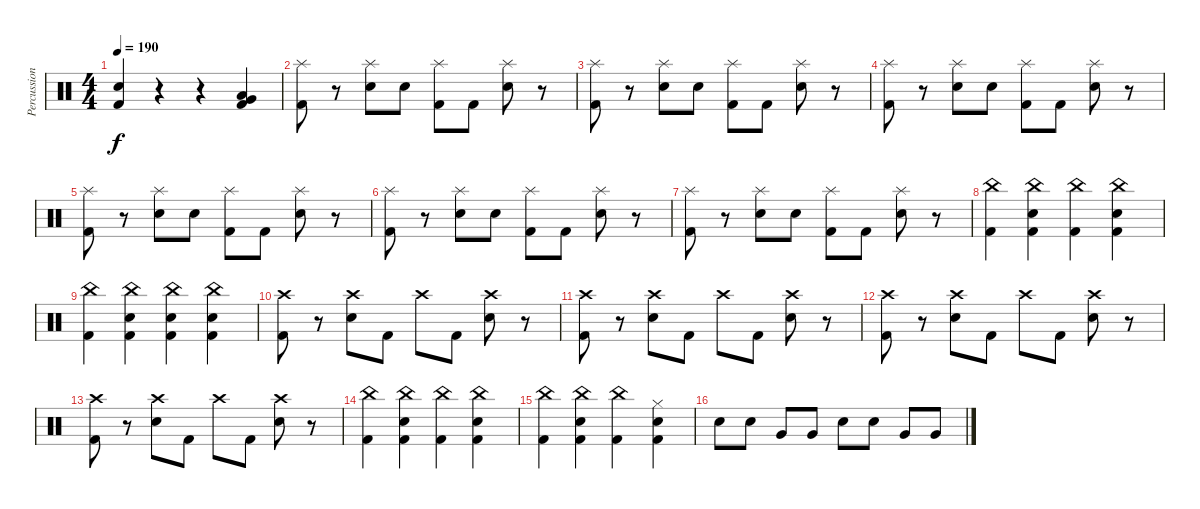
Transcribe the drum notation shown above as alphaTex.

\track ("Percussion" "Percussion") {instrument percussion}
\staff {score}
\articulation defaults
\ts (4 4)
\tempo 190
\clef neutral
\ks c
("Snare (hit) 2" "Kick (hit) 2").4{dy f} r.4 r.4 ("Low Tom (hit)" "Very Low Tom (hit)" "Kick (hit) 2").4 |
("Splash (hit)" "Kick (hit) 2").8 r.8 ("Splash (hit)" "Snare (hit) 2").8 "Snare (hit) 2".8 ("Splash (hit)" "Kick (hit) 2").8 "Kick (hit) 2".8 ("Splash (hit)" "Snare (hit) 2").8 r.8 |
("Splash (hit)" "Kick (hit) 2").8 r.8 ("Splash (hit)" "Snare (hit) 2").8 "Snare (hit) 2".8 ("Splash (hit)" "Kick (hit) 2").8 "Kick (hit) 2".8 ("Splash (hit)" "Snare (hit) 2").8 r.8 |
("Splash (hit)" "Kick (hit) 2").8 r.8 ("Splash (hit)" "Snare (hit) 2").8 "Snare (hit) 2".8 ("Splash (hit)" "Kick (hit) 2").8 "Kick (hit) 2".8 ("Splash (hit)" "Snare (hit) 2").8 r.8 |
("Splash (hit)" "Kick (hit) 2").8 r.8 ("Splash (hit)" "Snare (hit) 2").8 "Snare (hit) 2".8 ("Splash (hit)" "Kick (hit) 2").8 "Kick (hit) 2".8 ("Splash (hit)" "Snare (hit) 2").8 r.8 |
("Splash (hit)" "Kick (hit) 2").8 r.8 ("Splash (hit)" "Snare (hit) 2").8 "Snare (hit) 2".8 ("Splash (hit)" "Kick (hit) 2").8 "Kick (hit) 2".8 ("Splash (hit)" "Snare (hit) 2").8 r.8 |
("Splash (hit)" "Kick (hit) 2").8 r.8 ("Splash (hit)" "Snare (hit) 2").8 "Snare (hit) 2".8 ("Splash (hit)" "Kick (hit) 2").8 "Kick (hit) 2".8 ("Splash (hit)" "Snare (hit) 2").8 r.8 |
("China (hit)" "Kick (hit) 2").4 ("China (hit)" "Snare (hit) 2" "Kick (hit) 2").4 ("China (hit)" "Kick (hit) 2").4 ("China (hit)" "Snare (hit) 2" "Kick (hit) 2").4 |
("China (hit)" "Kick (hit) 2").4 ("China (hit)" "Snare (hit) 2" "Kick (hit) 2").4 ("China (hit)" "Snare (hit) 2" "Kick (hit) 2").4 ("China (hit)" "Snare (hit) 2" "Kick (hit) 2").4 |
("Crash high (hit)" "Kick (hit) 2").8 r.8 ("Crash high (hit)" "Snare (hit) 2").8 "Kick (hit) 2".8 "Crash high (hit)".8 "Kick (hit) 2".8 ("Crash high (hit)" "Snare (hit) 2").8 r.8 |
("Crash high (hit)" "Kick (hit) 2").8 r.8 ("Crash high (hit)" "Snare (hit) 2").8 "Kick (hit) 2".8 "Crash high (hit)".8 "Kick (hit) 2".8 ("Crash high (hit)" "Snare (hit) 2").8 r.8 |
("Crash high (hit)" "Kick (hit) 2").8 r.8 ("Crash high (hit)" "Snare (hit) 2").8 "Kick (hit) 2".8 "Crash high (hit)".8 "Kick (hit) 2".8 ("Crash high (hit)" "Snare (hit) 2").8 r.8 |
("Crash high (hit)" "Kick (hit) 2").8 r.8 ("Crash high (hit)" "Snare (hit) 2").8 "Kick (hit) 2".8 "Crash high (hit)".8 "Kick (hit) 2".8 ("Crash high (hit)" "Snare (hit) 2").8 r.8 |
("China (hit)" "Kick (hit) 2").4 ("China (hit)" "Snare (hit) 2" "Kick (hit) 2").4 ("China (hit)" "Kick (hit) 2").4 ("China (hit)" "Snare (hit) 2" "Kick (hit) 2").4 |
("China (hit)" "Kick (hit) 2").4 ("China (hit)" "Snare (hit) 2" "Kick (hit) 2").4 ("China (hit)" "Kick (hit) 2").4 ("Hi-Hat (closed)" "Snare (hit) 2" "Kick (hit) 2").4 |
"Snare (hit) 2".8 "Snare (hit) 2".8 "Very Low Tom (hit)".8 "Very Low Tom (hit)".8 "Snare (hit) 2".8 "Snare (hit) 2".8 "Very Low Tom (hit)".8 "Very Low Tom (hit)".8
